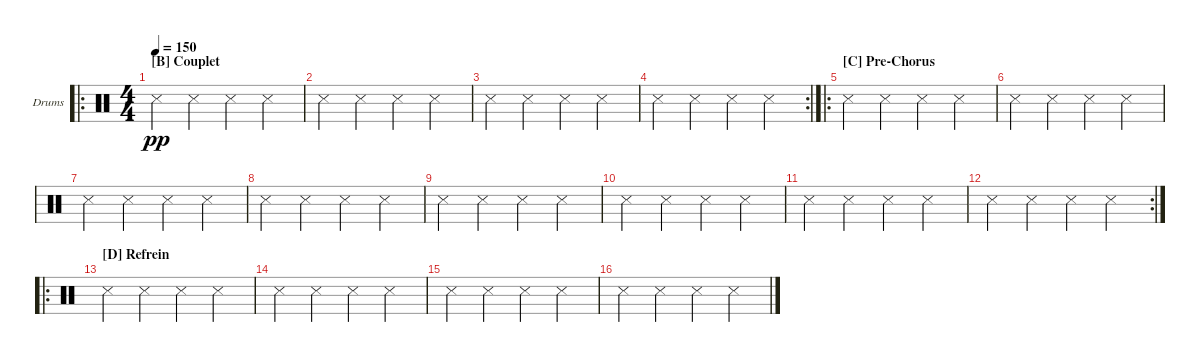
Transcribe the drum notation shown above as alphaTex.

\defaultSystemsLayout 4
\bracketExtendMode groupsimilarinstruments
\firstSystemTrackNameOrientation horizontal
\otherSystemsTrackNameOrientation horizontal
\track ("Drumkit" "Drums") {instrument percussion}
\staff {score}
\articulation defaults
\ro
\ts (4 4)
\section ("B" "Couplet")
\tempo 150
\clef neutral
\scale
0.280992
\ks c "Snare (side stick) 3".4{dy pp} "Snare (side stick) 3".4 "Snare (side stick) 3".4 "Snare (side stick) 3".4
|
\scale
0.231405 "Snare (side stick) 3".4 "Snare (side stick) 3".4 "Snare (side stick) 3".4 "Snare (side stick) 3".4 |
\scale
0.231405 "Snare (side stick) 3".4 "Snare (side stick) 3".4 "Snare (side stick) 3".4 "Snare (side stick) 3".4 |
\rc 2
\scale
0.256198 "Snare (side stick) 3".4 "Snare (side stick) 3".4 "Snare (side stick) 3".4 "Snare (side stick) 3".4 |
\ro
\section ("C" "Pre-Chorus")
\scale
0.288136 "Snare (side stick) 3".4 "Snare (side stick) 3".4 "Snare (side stick) 3".4 "Snare (side stick) 3".4 |
\scale
0.237288 "Snare (side stick) 3".4 "Snare (side stick) 3".4 "Snare (side stick) 3".4 "Snare (side stick) 3".4 |
\scale
0.237288 "Snare (side stick) 3".4 "Snare (side stick) 3".4 "Snare (side stick) 3".4 "Snare (side stick) 3".4 |
\scale
0.237288 "Snare (side stick) 3".4 "Snare (side stick) 3".4 "Snare (side stick) 3".4 "Snare (side stick) 3".4 |
\scale
0.243478 "Snare (side stick) 3".4 "Snare (side stick) 3".4 "Snare (side stick) 3".4 "Snare (side stick) 3".4 |
\scale
0.243478 "Snare (side stick) 3".4 "Snare (side stick) 3".4 "Snare (side stick) 3".4 "Snare (side stick) 3".4 |
\scale
0.243478 "Snare (side stick) 3".4 "Snare (side stick) 3".4 "Snare (side stick) 3".4 "Snare (side stick) 3".4 |
\rc 2
\scale
0.269565 "Snare (side stick) 3".4 "Snare (side stick) 3".4 "Snare (side stick) 3".4 "Snare (side stick) 3".4 |
\ro
\section ("D" "Refrein")
\scale
0.288136 "Snare (side stick) 3".4 "Snare (side stick) 3".4 "Snare (side stick) 3".4 "Snare (side stick) 3".4 |
\scale
0.237288 "Snare (side stick) 3".4 "Snare (side stick) 3".4 "Snare (side stick) 3".4 "Snare (side stick) 3".4 |
\scale
0.237288 "Snare (side stick) 3".4 "Snare (side stick) 3".4 "Snare (side stick) 3".4 "Snare (side stick) 3".4 |
\scale
0.237288 "Snare (side stick) 3".4 "Snare (side stick) 3".4 "Snare (side stick) 3".4 "Snare (side stick) 3".4
